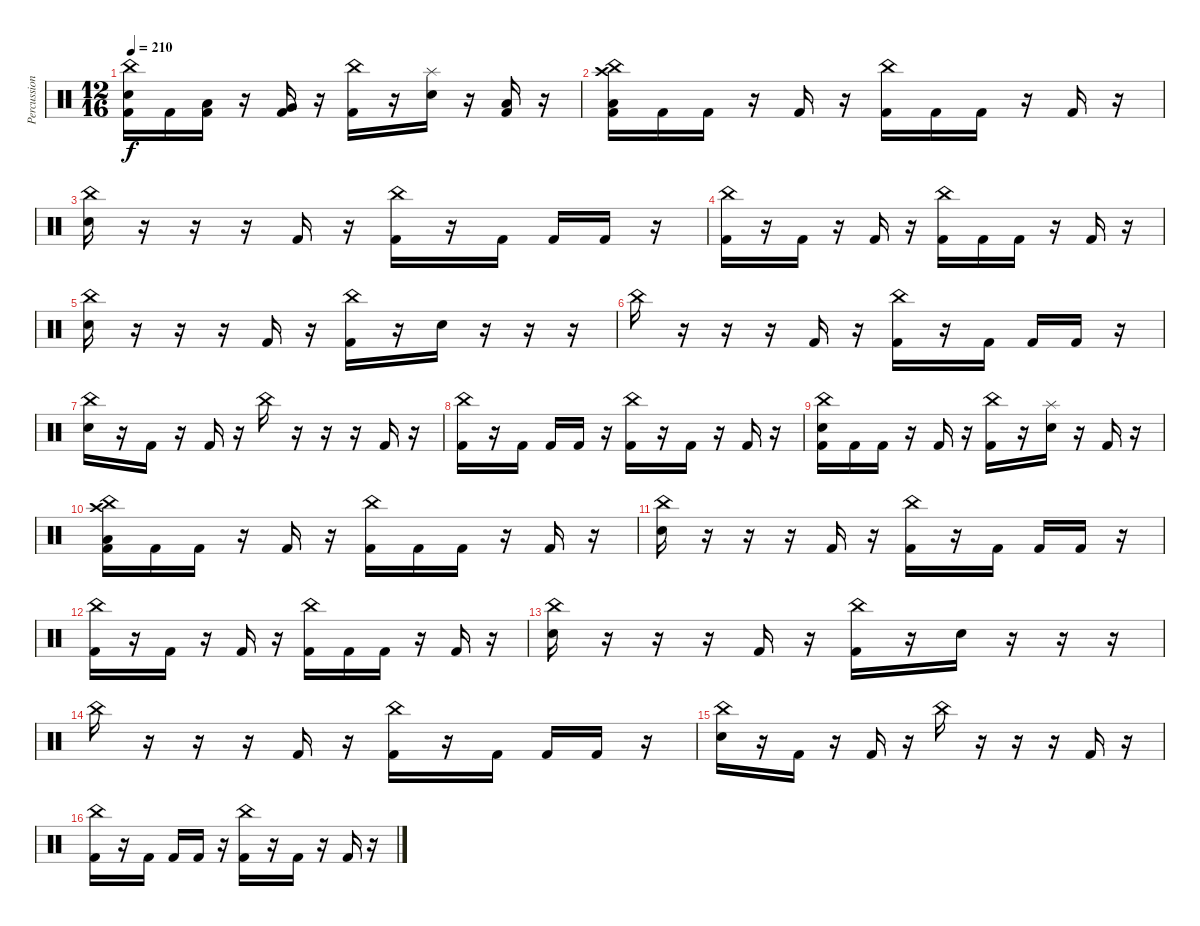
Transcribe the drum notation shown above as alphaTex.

\track ("Percussion" "Percussion") {instrument percussion}
\staff {score}
\articulation defaults
\ts (12 16)
\tempo 210
\clef neutral
\ks c
("China (hit)" "Electric Snare (hit)" "Kick (hit) 2").16{dy f} "Kick (hit) 2".16 ("Low Tom (hit)" "Kick (hit) 2").16 r.16 ("Very Low Tom (hit)" "Kick (hit) 2").16 r.16 ("China (hit)" "Kick (hit) 2").16 r.16 ("Splash (hit)" "Electric Snare (hit)").16 r.16 ("Low Floor Tom (hit)" "Kick (hit) 2").16 r.16 |
("Crash high (hit)" "China (hit)" "Low Floor Tom (hit)" "Kick (hit) 2").16 "Kick (hit) 2".16 "Kick (hit) 2".16 r.16 "Kick (hit) 2".16 r.16 ("China (hit)" "Kick (hit) 2").16 "Kick (hit) 2".16 "Kick (hit) 2".16 r.16 "Kick (hit) 2".16 r.16 |
("China (hit)" "Electric Snare (hit)").16 r.16 r.16 r.16 "Kick (hit) 2".16 r.16 ("China (hit)" "Kick (hit) 2").16 r.16 "Kick (hit) 2".16 "Kick (hit) 2".16 "Kick (hit) 2".16 r.16 |
("China (hit)" "Kick (hit) 2").16 r.16 "Kick (hit) 2".16 r.16 "Kick (hit) 2".16 r.16 ("China (hit)" "Kick (hit) 2").16 "Kick (hit) 2".16 "Kick (hit) 2".16 r.16 "Kick (hit) 2".16 r.16 |
("China (hit)" "Electric Snare (hit)").16 r.16 r.16 r.16 "Kick (hit) 2".16 r.16 ("China (hit)" "Kick (hit) 2").16 r.16 "Electric Snare (hit)".16 r.16 r.16 r.16 |
"China (hit)".16 r.16 r.16 r.16 "Kick (hit) 2".16 r.16 ("China (hit)" "Kick (hit) 2").16 r.16 "Kick (hit) 2".16 "Kick (hit) 2".16 "Kick (hit) 2".16 r.16 |
("China (hit)" "Electric Snare (hit)").16 r.16 "Kick (hit) 2".16 r.16 "Kick (hit) 2".16 r.16 "China (hit)".16 r.16 r.16 r.16 "Kick (hit) 2".16 r.16 |
("China (hit)" "Kick (hit) 2").16 r.16 "Kick (hit) 2".16 "Kick (hit) 2".16 "Kick (hit) 2".16 r.16 ("China (hit)" "Kick (hit) 2").16 r.16 "Kick (hit) 2".16 r.16 "Kick (hit) 2".16 r.16 |
("China (hit)" "Electric Snare (hit)" "Kick (hit) 2").16 "Kick (hit) 2".16 "Kick (hit) 2".16 r.16 "Kick (hit) 2".16 r.16 ("China (hit)" "Kick (hit) 2").16 r.16 ("Splash (hit)" "Electric Snare (hit)").16 r.16 "Kick (hit) 2".16 r.16 |
("Crash high (hit)" "China (hit)" "Low Floor Tom (hit)" "Kick (hit) 2").16 "Kick (hit) 2".16 "Kick (hit) 2".16 r.16 "Kick (hit) 2".16 r.16 ("China (hit)" "Kick (hit) 2").16 "Kick (hit) 2".16 "Kick (hit) 2".16 r.16 "Kick (hit) 2".16 r.16 |
("China (hit)" "Electric Snare (hit)").16 r.16 r.16 r.16 "Kick (hit) 2".16 r.16 ("China (hit)" "Kick (hit) 2").16 r.16 "Kick (hit) 2".16 "Kick (hit) 2".16 "Kick (hit) 2".16 r.16 |
("China (hit)" "Kick (hit) 2").16 r.16 "Kick (hit) 2".16 r.16 "Kick (hit) 2".16 r.16 ("China (hit)" "Kick (hit) 2").16 "Kick (hit) 2".16 "Kick (hit) 2".16 r.16 "Kick (hit) 2".16 r.16 |
("China (hit)" "Electric Snare (hit)").16 r.16 r.16 r.16 "Kick (hit) 2".16 r.16 ("China (hit)" "Kick (hit) 2").16 r.16 "Electric Snare (hit)".16 r.16 r.16 r.16 |
"China (hit)".16 r.16 r.16 r.16 "Kick (hit) 2".16 r.16 ("China (hit)" "Kick (hit) 2").16 r.16 "Kick (hit) 2".16 "Kick (hit) 2".16 "Kick (hit) 2".16 r.16 |
("China (hit)" "Electric Snare (hit)").16 r.16 "Kick (hit) 2".16 r.16 "Kick (hit) 2".16 r.16 "China (hit)".16 r.16 r.16 r.16 "Kick (hit) 2".16 r.16 |
("China (hit)" "Kick (hit) 2").16 r.16 "Kick (hit) 2".16 "Kick (hit) 2".16 "Kick (hit) 2".16 r.16 ("China (hit)" "Kick (hit) 2").16 r.16 "Kick (hit) 2".16 r.16 "Kick (hit) 2".16 r.16
